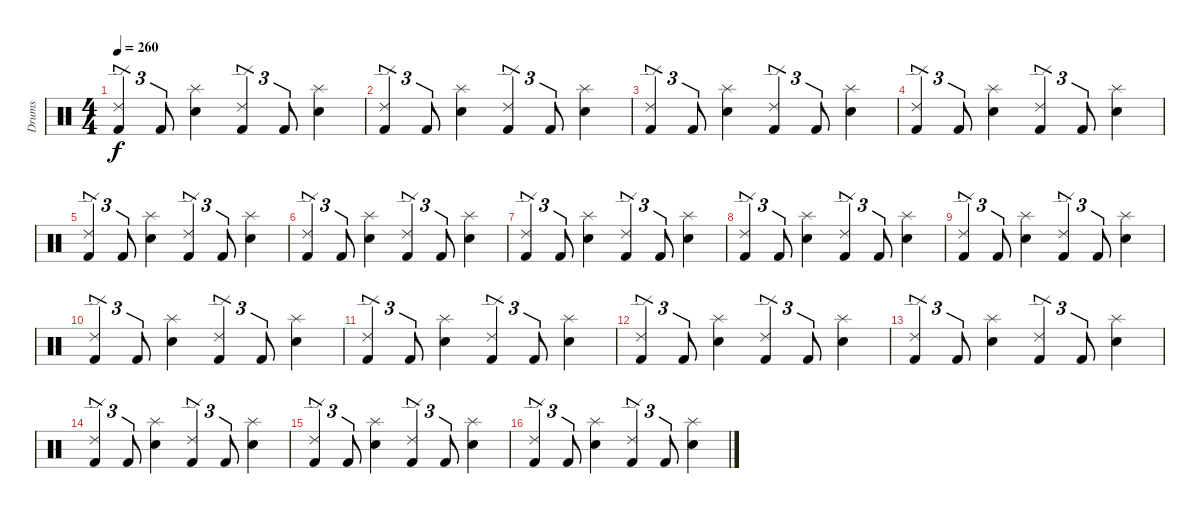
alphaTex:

\track ("Drums" "Drums") {instrument percussion}
\staff {score}
\articulation defaults
\ts (4 4)
\tempo 260
\clef neutral
\ks c
("Ride (edge) 2" "Kick (hit) 2").4{tu (3 2) dy f} "Kick (hit) 2".8{tu (3 2)} ("Splash (hit)" "Snare (hit) 2").4 ("Ride (edge) 2" "Kick (hit) 2").4{tu (3 2)} "Kick (hit) 2".8{tu (3 2)} ("Splash (hit)" "Snare (hit) 2").4 |
("Ride (edge) 2" "Kick (hit) 2").4{tu (3 2)} "Kick (hit) 2".8{tu (3 2)} ("Splash (hit)" "Snare (hit) 2").4 ("Ride (edge) 2" "Kick (hit) 2").4{tu (3 2)} "Kick (hit) 2".8{tu (3 2)} ("Splash (hit)" "Snare (hit) 2").4 |
("Ride (edge) 2" "Kick (hit) 2").4{tu (3 2)} "Kick (hit) 2".8{tu (3 2)} ("Splash (hit)" "Snare (hit) 2").4 ("Ride (edge) 2" "Kick (hit) 2").4{tu (3 2)} "Kick (hit) 2".8{tu (3 2)} ("Splash (hit)" "Snare (hit) 2").4 |
("Ride (edge) 2" "Kick (hit) 2").4{tu (3 2)} "Kick (hit) 2".8{tu (3 2)} ("Splash (hit)" "Snare (hit) 2").4 ("Ride (edge) 2" "Kick (hit) 2").4{tu (3 2)} "Kick (hit) 2".8{tu (3 2)} ("Splash (hit)" "Snare (hit) 2").4 |
("Ride (edge) 2" "Kick (hit) 2").4{tu (3 2)} "Kick (hit) 2".8{tu (3 2)} ("Splash (hit)" "Snare (hit) 2").4 ("Ride (edge) 2" "Kick (hit) 2").4{tu (3 2)} "Kick (hit) 2".8{tu (3 2)} ("Splash (hit)" "Snare (hit) 2").4 |
("Ride (edge) 2" "Kick (hit) 2").4{tu (3 2)} "Kick (hit) 2".8{tu (3 2)} ("Splash (hit)" "Snare (hit) 2").4 ("Ride (edge) 2" "Kick (hit) 2").4{tu (3 2)} "Kick (hit) 2".8{tu (3 2)} ("Splash (hit)" "Snare (hit) 2").4 |
("Ride (edge) 2" "Kick (hit) 2").4{tu (3 2)} "Kick (hit) 2".8{tu (3 2)} ("Splash (hit)" "Snare (hit) 2").4 ("Ride (edge) 2" "Kick (hit) 2").4{tu (3 2)} "Kick (hit) 2".8{tu (3 2)} ("Splash (hit)" "Snare (hit) 2").4 |
("Ride (edge) 2" "Kick (hit) 2").4{tu (3 2)} "Kick (hit) 2".8{tu (3 2)} ("Splash (hit)" "Snare (hit) 2").4 ("Ride (edge) 2" "Kick (hit) 2").4{tu (3 2)} "Kick (hit) 2".8{tu (3 2)} ("Splash (hit)" "Snare (hit) 2").4 |
("Ride (edge) 2" "Kick (hit) 2").4{tu (3 2)} "Kick (hit) 2".8{tu (3 2)} ("Splash (hit)" "Snare (hit) 2").4 ("Ride (edge) 2" "Kick (hit) 2").4{tu (3 2)} "Kick (hit) 2".8{tu (3 2)} ("Splash (hit)" "Snare (hit) 2").4 |
("Ride (edge) 2" "Kick (hit) 2").4{tu (3 2)} "Kick (hit) 2".8{tu (3 2)} ("Splash (hit)" "Snare (hit) 2").4 ("Ride (edge) 2" "Kick (hit) 2").4{tu (3 2)} "Kick (hit) 2".8{tu (3 2)} ("Splash (hit)" "Snare (hit) 2").4 |
("Ride (edge) 2" "Kick (hit) 2").4{tu (3 2)} "Kick (hit) 2".8{tu (3 2)} ("Splash (hit)" "Snare (hit) 2").4 ("Ride (edge) 2" "Kick (hit) 2").4{tu (3 2)} "Kick (hit) 2".8{tu (3 2)} ("Splash (hit)" "Snare (hit) 2").4 |
("Ride (edge) 2" "Kick (hit) 2").4{tu (3 2)} "Kick (hit) 2".8{tu (3 2)} ("Splash (hit)" "Snare (hit) 2").4 ("Ride (edge) 2" "Kick (hit) 2").4{tu (3 2)} "Kick (hit) 2".8{tu (3 2)} ("Splash (hit)" "Snare (hit) 2").4 |
("Ride (edge) 2" "Kick (hit) 2").4{tu (3 2)} "Kick (hit) 2".8{tu (3 2)} ("Splash (hit)" "Snare (hit) 2").4 ("Ride (edge) 2" "Kick (hit) 2").4{tu (3 2)} "Kick (hit) 2".8{tu (3 2)} ("Splash (hit)" "Snare (hit) 2").4 |
("Ride (edge) 2" "Kick (hit) 2").4{tu (3 2)} "Kick (hit) 2".8{tu (3 2)} ("Splash (hit)" "Snare (hit) 2").4 ("Ride (edge) 2" "Kick (hit) 2").4{tu (3 2)} "Kick (hit) 2".8{tu (3 2)} ("Splash (hit)" "Snare (hit) 2").4 |
("Ride (edge) 2" "Kick (hit) 2").4{tu (3 2)} "Kick (hit) 2".8{tu (3 2)} ("Splash (hit)" "Snare (hit) 2").4 ("Ride (edge) 2" "Kick (hit) 2").4{tu (3 2)} "Kick (hit) 2".8{tu (3 2)} ("Splash (hit)" "Snare (hit) 2").4 |
("Ride (edge) 2" "Kick (hit) 2").4{tu (3 2)} "Kick (hit) 2".8{tu (3 2)} ("Splash (hit)" "Snare (hit) 2").4 ("Ride (edge) 2" "Kick (hit) 2").4{tu (3 2)} "Kick (hit) 2".8{tu (3 2)} ("Splash (hit)" "Snare (hit) 2").4
